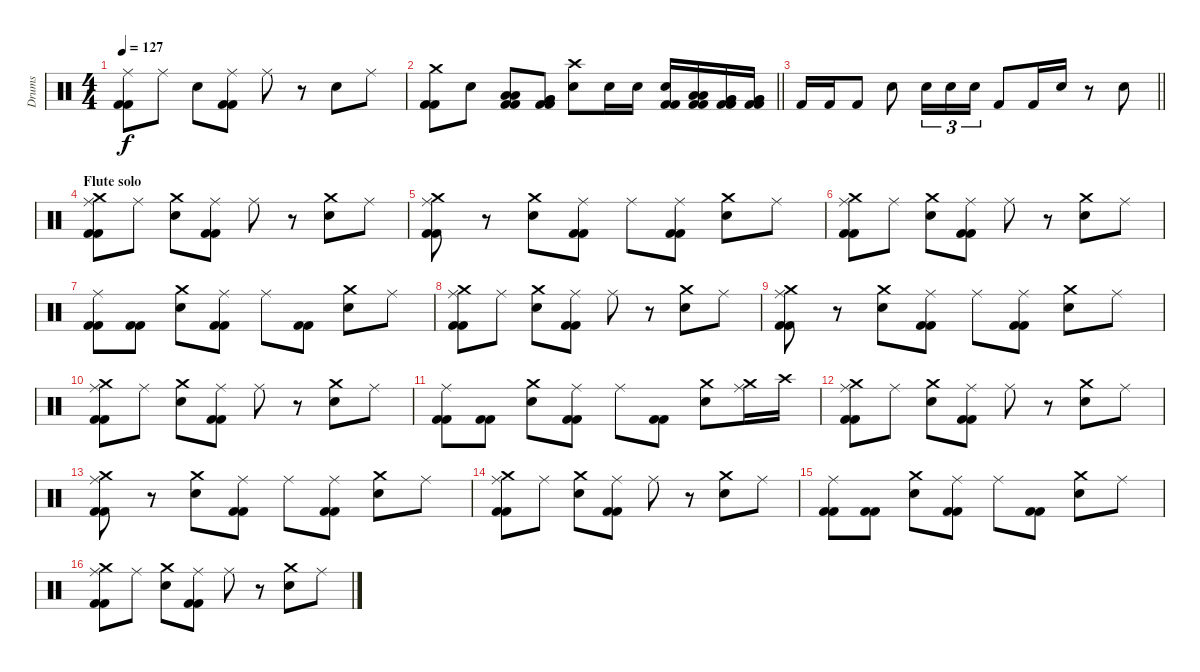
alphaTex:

\track ("Drums" "Drums") {instrument percussion}
\staff {score}
\articulation defaults
\ts (4 4)
\tempo 127
\clef neutral
\ks c
("Ride (middle)" "Kick (hit) 2" "Kick (hit) 2").8{dy f} "Ride (middle)".8 "Electric Snare (hit)".8 ("Ride (middle)" "Kick (hit) 2" "Kick (hit) 2").8 "Ride (middle)".8 r.8 "Electric Snare (hit)".8 "Ride (middle)".8 |
\barLineRight lightlight
("Crash medium (hit)" "Kick (hit) 2" "Kick (hit) 2").8 "Electric Snare (hit)".8 ("Low Tom (hit)" "Low Tom (hit)" "Kick (hit) 2" "Kick (hit) 2").8 ("Very Low Tom (hit)" "Very Low Tom (hit)" "Kick (hit) 2" "Kick (hit) 2").8 ("Crash high (hit)" "Electric Snare (hit)").8 "Electric Snare (hit)".16 "Electric Snare (hit)".16 ("Electric Snare (hit)" "Kick (hit) 2" "Kick (hit) 2").16 ("Low Tom (hit)" "Low Tom (hit)" "Kick (hit) 2" "Kick (hit) 2").16 ("Very Low Tom (hit)" "Very Low Tom (hit)" "Kick (hit) 2" "Kick (hit) 2").16 ("Very Low Tom (hit)" "Very Low Tom (hit)" "Kick (hit) 2" "Kick (hit) 2").16 |
\barLineRight lightlight "Kick (hit) 2".16 "Kick (hit) 2".16 "Kick (hit) 2".8 "Snare (hit) 2".8 "Snare (hit) 2".16{tu (3 2)} "Snare (hit) 2".16{tu (3 2)} "Snare (hit) 2".16{tu (3 2)} "Kick (hit) 2".8 "Kick (hit) 2".16 "Snare (hit) 2".16
r.8 "Snare (hit) 2".8 |
\section ("" "Flute solo")
("Ride (middle)" "Crash medium (hit)" "Kick (hit) 2" "Kick (hit) 2").8 "Ride (middle)".8 ("Crash medium (hit)" "Electric Snare (hit)").8 ("Ride (middle)" "Kick (hit) 2" "Kick (hit) 2").8 "Ride (middle)".8 r.8 ("Crash medium (hit)" "Electric Snare (hit)").8 "Ride (middle)".8 |
("Ride (middle)" "Crash medium (hit)" "Kick (hit) 2" "Kick (hit) 2").8 r.8 ("Crash medium (hit)" "Electric Snare (hit)").8 ("Ride (middle)" "Kick (hit) 2" "Kick (hit) 2").8 "Ride (middle)".8 ("Ride (middle)" "Kick (hit) 2" "Kick (hit) 2").8 ("Crash medium (hit)" "Electric Snare (hit)").8 "Ride (middle)".8 |
("Ride (middle)" "Crash medium (hit)" "Kick (hit) 2" "Kick (hit) 2").8 "Ride (middle)".8 ("Crash medium (hit)" "Electric Snare (hit)").8 ("Ride (middle)" "Kick (hit) 2" "Kick (hit) 2").8 "Ride (middle)".8 r.8 ("Crash medium (hit)" "Electric Snare (hit)").8 "Ride (middle)".8 |
("Ride (middle)" "Kick (hit) 2" "Kick (hit) 2").8 ("Kick (hit) 2" "Kick (hit) 2").8 ("Crash medium (hit)" "Electric Snare (hit)").8 ("Ride (middle)" "Kick (hit) 2" "Kick (hit) 2").8 "Ride (middle)".8 ("Kick (hit) 2" "Kick (hit) 2").8 ("Crash medium (hit)" "Electric Snare (hit)").8 "Ride (middle)".8 |
("Ride (middle)" "Crash medium (hit)" "Kick (hit) 2" "Kick (hit) 2").8 "Ride (middle)".8 ("Crash medium (hit)" "Electric Snare (hit)").8 ("Ride (middle)" "Kick (hit) 2" "Kick (hit) 2").8 "Ride (middle)".8 r.8 ("Crash medium (hit)" "Electric Snare (hit)").8 "Ride (middle)".8 |
("Ride (middle)" "Crash medium (hit)" "Kick (hit) 2" "Kick (hit) 2").8 r.8 ("Crash medium (hit)" "Electric Snare (hit)").8 ("Ride (middle)" "Kick (hit) 2" "Kick (hit) 2").8 "Ride (middle)".8 ("Ride (middle)" "Kick (hit) 2" "Kick (hit) 2").8 ("Crash medium (hit)" "Electric Snare (hit)").8 "Ride (middle)".8 |
("Ride (middle)" "Crash medium (hit)" "Kick (hit) 2" "Kick (hit) 2").8 "Ride (middle)".8 ("Crash medium (hit)" "Electric Snare (hit)").8 ("Ride (middle)" "Kick (hit) 2" "Kick (hit) 2").8 "Ride (middle)".8 r.8 ("Crash medium (hit)" "Electric Snare (hit)").8 "Ride (middle)".8 |
("Ride (middle)" "Kick (hit) 2" "Kick (hit) 2").8 ("Kick (hit) 2" "Kick (hit) 2").8 ("Crash medium (hit)" "Electric Snare (hit)").8 ("Ride (middle)" "Kick (hit) 2" "Kick (hit) 2").8 "Ride (middle)".8 ("Kick (hit) 2" "Kick (hit) 2").8 ("Crash medium (hit)" "Electric Snare (hit)").8 ("Ride (middle)" "Crash medium (hit)").16 "Crash high (hit)".16 |
("Ride (middle)" "Crash medium (hit)" "Kick (hit) 2" "Kick (hit) 2").8 "Ride (middle)".8 ("Crash medium (hit)" "Electric Snare (hit)").8 ("Ride (middle)" "Kick (hit) 2" "Kick (hit) 2").8 "Ride (middle)".8 r.8 ("Crash medium (hit)" "Electric Snare (hit)").8 "Ride (middle)".8 |
("Ride (middle)" "Crash medium (hit)" "Kick (hit) 2" "Kick (hit) 2").8 r.8 ("Crash medium (hit)" "Electric Snare (hit)").8 ("Ride (middle)" "Kick (hit) 2" "Kick (hit) 2").8 "Ride (middle)".8 ("Ride (middle)" "Kick (hit) 2" "Kick (hit) 2").8 ("Crash medium (hit)" "Electric Snare (hit)").8 "Ride (middle)".8 |
("Ride (middle)" "Crash medium (hit)" "Kick (hit) 2" "Kick (hit) 2").8 "Ride (middle)".8 ("Crash medium (hit)" "Electric Snare (hit)").8 ("Ride (middle)" "Kick (hit) 2" "Kick (hit) 2").8 "Ride (middle)".8 r.8 ("Crash medium (hit)" "Electric Snare (hit)").8 "Ride (middle)".8 |
("Ride (middle)" "Kick (hit) 2" "Kick (hit) 2").8 ("Kick (hit) 2" "Kick (hit) 2").8 ("Crash medium (hit)" "Electric Snare (hit)").8 ("Ride (middle)" "Kick (hit) 2" "Kick (hit) 2").8 "Ride (middle)".8 ("Kick (hit) 2" "Kick (hit) 2").8 ("Crash medium (hit)" "Electric Snare (hit)").8 "Ride (middle)".8 |
("Ride (middle)" "Crash medium (hit)" "Kick (hit) 2" "Kick (hit) 2").8 "Ride (middle)".8 ("Crash medium (hit)" "Electric Snare (hit)").8 ("Ride (middle)" "Kick (hit) 2" "Kick (hit) 2").8 "Ride (middle)".8 r.8 ("Crash medium (hit)" "Electric Snare (hit)").8 "Ride (middle)".8
